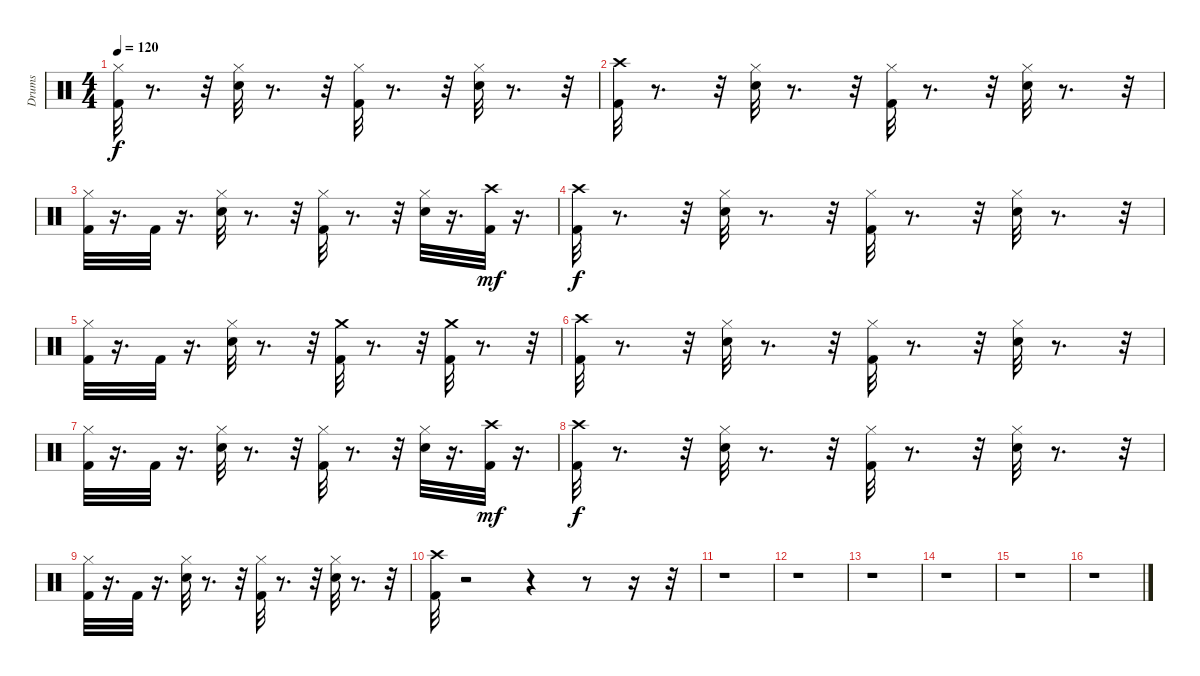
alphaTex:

\track ("Drums" "Drums") {instrument percussion}
\staff {score}
\articulation defaults
\ts (4 4)
\tempo 120
\clef neutral
\ks c
("Kick (hit) 2" "Hi-Hat (closed)").32{dy f} r.8{d} r.32 ("Snare (hit) 2" "Hi-Hat (closed)").32 r.8{d} r.32 ("Kick (hit) 2" "Hi-Hat (closed)").32 r.8{d} r.32 ("Snare (hit) 2" "Hi-Hat (closed)").32 r.8{d} r.32 |
("Kick (hit) 2" "Crash high (hit)").32 r.8{d} r.32 ("Snare (hit) 2" "Hi-Hat (closed)").32 r.8{d} r.32 ("Kick (hit) 2" "Hi-Hat (closed)").32 r.8{d} r.32 ("Snare (hit) 2" "Hi-Hat (closed)").32 r.8{d} r.32 |
("Kick (hit) 2" "Hi-Hat (closed)").32 r.16{d} "Kick (hit) 2".32 r.16{d} ("Snare (hit) 2" "Hi-Hat (closed)").32 r.8{d} r.32 ("Kick (hit) 2" "Hi-Hat (closed)").32 r.8{d} r.32 ("Snare (hit) 2" "Hi-Hat (closed)").32 r.16{d} ("Kick (hit) 2" "Crash high (hit)").32{dy mf} r.16{d} |
("Kick (hit) 2" "Crash high (hit)").32{dy f} r.8{d} r.32 ("Snare (hit) 2" "Hi-Hat (closed)").32 r.8{d} r.32 ("Kick (hit) 2" "Hi-Hat (closed)").32 r.8{d} r.32 ("Snare (hit) 2" "Hi-Hat (closed)").32 r.8{d} r.32 |
("Kick (hit) 2" "Hi-Hat (closed)").32 r.16{d} "Kick (hit) 2".32 r.16{d} ("Snare (hit) 2" "Hi-Hat (closed)").32 r.8{d} r.32 ("Kick (hit) 2" "Crash medium (hit)").32 r.8{d} r.32 ("Kick (hit) 2" "Crash medium (hit)").32 r.8{d} r.32 |
("Kick (hit) 2" "Crash high (hit)").32 r.8{d} r.32 ("Snare (hit) 2" "Hi-Hat (closed)").32 r.8{d} r.32 ("Kick (hit) 2" "Hi-Hat (closed)").32 r.8{d} r.32 ("Snare (hit) 2" "Hi-Hat (closed)").32 r.8{d} r.32 |
("Kick (hit) 2" "Hi-Hat (closed)").32 r.16{d} "Kick (hit) 2".32 r.16{d} ("Snare (hit) 2" "Hi-Hat (closed)").32 r.8{d} r.32 ("Kick (hit) 2" "Hi-Hat (closed)").32 r.8{d} r.32 ("Snare (hit) 2" "Hi-Hat (closed)").32 r.16{d} ("Kick (hit) 2" "Crash high (hit)").32{dy mf} r.16{d} |
("Kick (hit) 2" "Crash high (hit)").32{dy f} r.8{d} r.32 ("Snare (hit) 2" "Hi-Hat (closed)").32 r.8{d} r.32 ("Kick (hit) 2" "Hi-Hat (closed)").32 r.8{d} r.32 ("Snare (hit) 2" "Hi-Hat (closed)").32 r.8{d} r.32 |
("Kick (hit) 2" "Hi-Hat (closed)").32 r.16{d} "Kick (hit) 2".32 r.16{d} ("Snare (hit) 2" "Hi-Hat (closed)").32 r.8{d} r.32 ("Kick (hit) 2" "Hi-Hat (closed)").32 r.8{d} r.32 ("Snare (hit) 2" "Hi-Hat (closed)").32 r.8{d} r.32 |
("Kick (hit) 2" "Crash high (hit)").32 r.2 r.4 r.8 r.16 r.32 |
r.1 |
r.1 |
r.1 |
r.1 |
r.1 |
r.1
